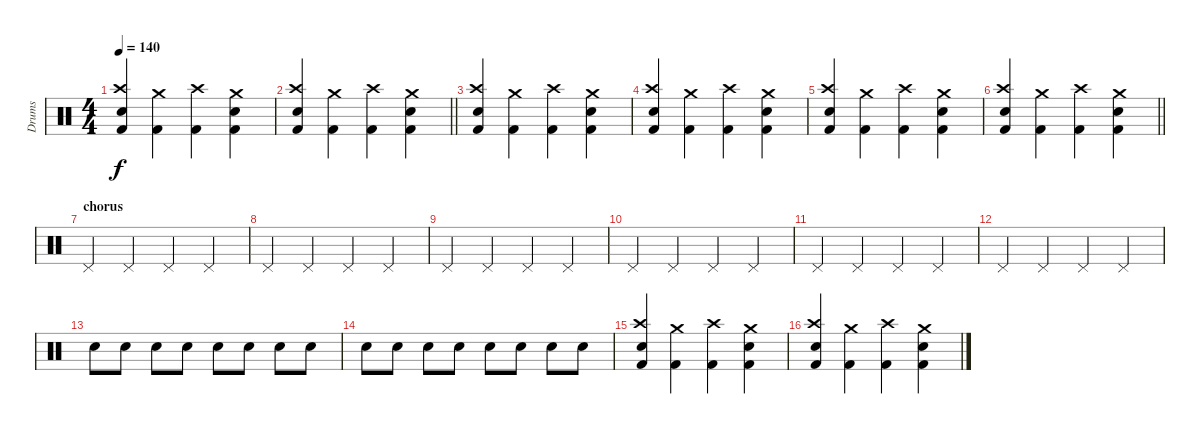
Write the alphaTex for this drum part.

\track ("Drums" "Drums") {instrument percussion}
\staff {score}
\articulation defaults
\ts (4 4)
\tempo 140
\clef neutral
\ks c
("Electric Snare (hit)" "Crash high (hit)" "Kick (hit) 2").4{dy f} ("Kick (hit) 2" "Crash medium (hit)").4 ("Kick (hit) 2" "Crash high (hit)").4 ("Electric Snare (hit)" "Kick (hit) 2" "Crash medium (hit)").4 |
\barLineRight lightlight
("Electric Snare (hit)" "Crash high (hit)" "Kick (hit) 2").4 ("Kick (hit) 2" "Crash medium (hit)").4 ("Kick (hit) 2" "Crash high (hit)").4 ("Electric Snare (hit)" "Kick (hit) 2" "Crash medium (hit)").4 |
("Electric Snare (hit)" "Crash high (hit)" "Kick (hit) 2").4 ("Kick (hit) 2" "Crash medium (hit)").4 ("Kick (hit) 2" "Crash high (hit)").4 ("Electric Snare (hit)" "Kick (hit) 2" "Crash medium (hit)").4 |
("Electric Snare (hit)" "Crash high (hit)" "Kick (hit) 2").4 ("Kick (hit) 2" "Crash medium (hit)").4 ("Kick (hit) 2" "Crash high (hit)").4 ("Electric Snare (hit)" "Kick (hit) 2" "Crash medium (hit)").4 |
("Electric Snare (hit)" "Crash high (hit)" "Kick (hit) 2").4 ("Kick (hit) 2" "Crash medium (hit)").4 ("Kick (hit) 2" "Crash high (hit)").4 ("Electric Snare (hit)" "Kick (hit) 2" "Crash medium (hit)").4 |
\barLineRight lightlight
("Electric Snare (hit)" "Crash high (hit)" "Kick (hit) 2").4 ("Kick (hit) 2" "Crash medium (hit)").4 ("Kick (hit) 2" "Crash high (hit)").4 ("Electric Snare (hit)" "Kick (hit) 2" "Crash medium (hit)").4 |
\section ("" "chorus")
"Pedal Hi-Hat (hit)".4 "Pedal Hi-Hat (hit)".4 "Pedal Hi-Hat (hit)".4 "Pedal Hi-Hat (hit)".4 |
"Pedal Hi-Hat (hit)".4 "Pedal Hi-Hat (hit)".4 "Pedal Hi-Hat (hit)".4 "Pedal Hi-Hat (hit)".4 |
"Pedal Hi-Hat (hit)".4 "Pedal Hi-Hat (hit)".4 "Pedal Hi-Hat (hit)".4 "Pedal Hi-Hat (hit)".4 |
"Pedal Hi-Hat (hit)".4 "Pedal Hi-Hat (hit)".4 "Pedal Hi-Hat (hit)".4 "Pedal Hi-Hat (hit)".4 |
"Pedal Hi-Hat (hit)".4 "Pedal Hi-Hat (hit)".4 "Pedal Hi-Hat (hit)".4 "Pedal Hi-Hat (hit)".4 |
"Pedal Hi-Hat (hit)".4 "Pedal Hi-Hat (hit)".4 "Pedal Hi-Hat (hit)".4 "Pedal Hi-Hat (hit)".4 |
"Electric Snare (hit)".8 "Electric Snare (hit)".8 "Electric Snare (hit)".8 "Electric Snare (hit)".8 "Electric Snare (hit)".8 "Electric Snare (hit)".8 "Electric Snare (hit)".8 "Electric Snare (hit)".8 |
"Electric Snare (hit)".8 "Electric Snare (hit)".8 "Electric Snare (hit)".8 "Electric Snare (hit)".8 "Electric Snare (hit)".8 "Electric Snare (hit)".8 "Electric Snare (hit)".8 "Electric Snare (hit)".8 |
("Electric Snare (hit)" "Crash high (hit)" "Kick (hit) 2").4 ("Kick (hit) 2" "Crash medium (hit)").4 ("Kick (hit) 2" "Crash high (hit)").4 ("Electric Snare (hit)" "Kick (hit) 2" "Crash medium (hit)").4 |
("Electric Snare (hit)" "Crash high (hit)" "Kick (hit) 2").4 ("Kick (hit) 2" "Crash medium (hit)").4 ("Kick (hit) 2" "Crash high (hit)").4 ("Electric Snare (hit)" "Kick (hit) 2" "Crash medium (hit)").4
